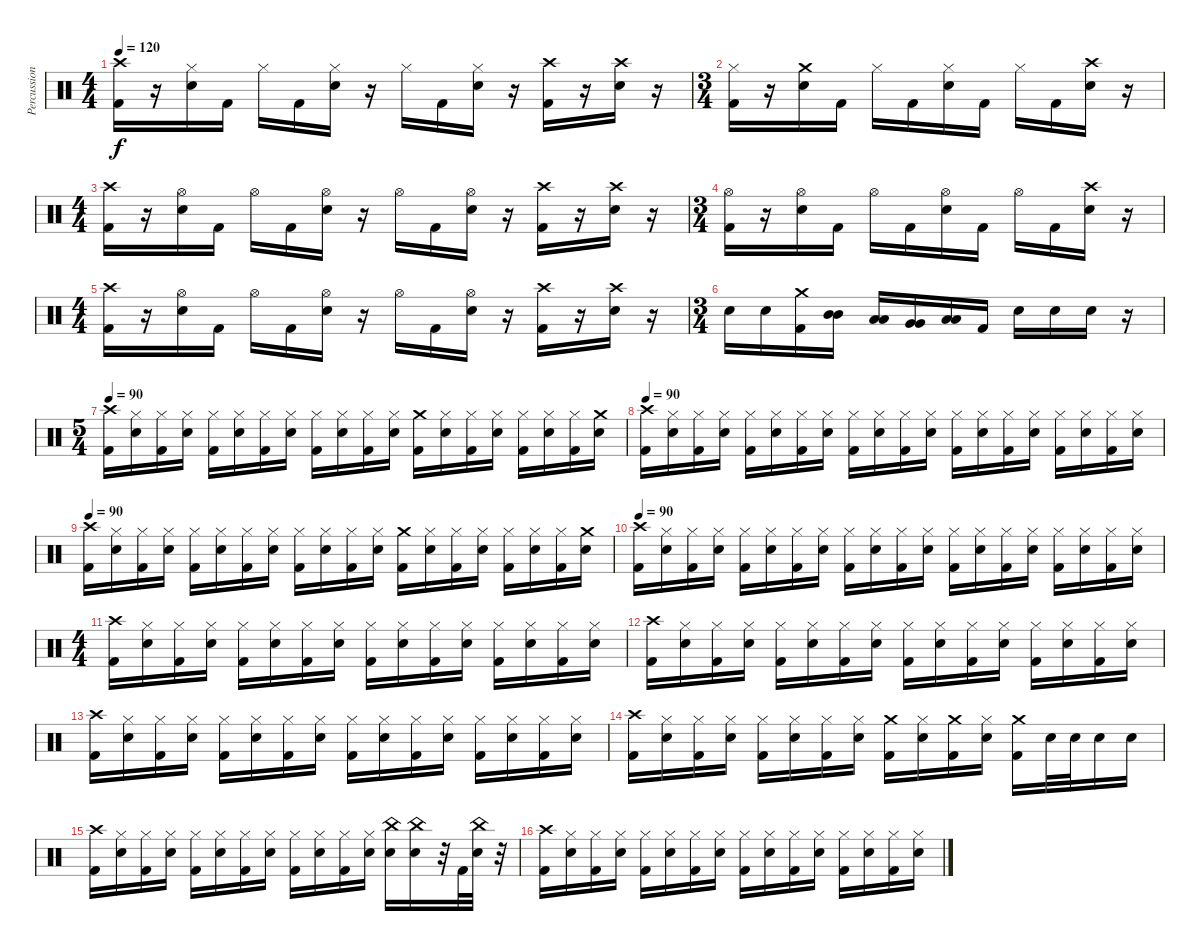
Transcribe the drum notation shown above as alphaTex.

\track ("Percussion" "Percussion") {instrument percussion}
\staff {score}
\articulation defaults
\ts (4 4)
\tempo 120
\clef neutral
\ks c
("Crash high (hit)" "Kick (hit) 2").16{dy f} r.16 ("Hi-Hat (closed)" "Snare (hit) 2").16 "Kick (hit) 2".16 "Hi-Hat (closed)".16 "Kick (hit) 2".16 ("Hi-Hat (closed)" "Snare (hit) 2").16 r.16 "Hi-Hat (closed)".16 "Kick (hit) 2".16 ("Hi-Hat (closed)" "Snare (hit) 2").16 r.16 ("Crash high (hit)" "Kick (hit) 2").16 r.16 ("Crash high (hit)" "Snare (hit) 2").16 r.16 |
\ts (3 4)
("Hi-Hat (closed)" "Kick (hit) 2").16 r.16 ("Crash medium (hit)" "Snare (hit) 2").16 "Kick (hit) 2".16 "Hi-Hat (closed)".16 "Kick (hit) 2".16 ("Hi-Hat (closed)" "Snare (hit) 2").16 "Kick (hit) 2".16 "Hi-Hat (closed)".16 "Kick (hit) 2".16 ("Crash high (hit)" "Snare (hit) 2").16 r.16 |
\ts (4 4)
("Crash high (hit)" "Kick (hit) 2").16 r.16 ("Hi-Hat (open)" "Snare (hit) 2").16 "Kick (hit) 2".16 "Hi-Hat (open)".16 "Kick (hit) 2".16 ("Hi-Hat (open)" "Snare (hit) 2").16 r.16 "Hi-Hat (open)".16 "Kick (hit) 2".16 ("Hi-Hat (open)" "Snare (hit) 2").16 r.16 ("Crash high (hit)" "Kick (hit) 2").16 r.16 ("Crash high (hit)" "Snare (hit) 2").16 r.16 |
\ts (3 4)
("Hi-Hat (open)" "Kick (hit) 2").16 r.16 ("Hi-Hat (open)" "Snare (hit) 2").16 "Kick (hit) 2".16 "Hi-Hat (open)".16 "Kick (hit) 2".16 ("Hi-Hat (open)" "Snare (hit) 2").16 "Kick (hit) 2".16 "Hi-Hat (open)".16 "Kick (hit) 2".16 ("Crash high (hit)" "Snare (hit) 2").16 r.16 |
\ts (4 4)
("Crash high (hit)" "Kick (hit) 2").16 r.16 ("Hi-Hat (open)" "Snare (hit) 2").16 "Kick (hit) 2".16 "Hi-Hat (open)".16 "Kick (hit) 2".16 ("Hi-Hat (open)" "Snare (hit) 2").16 r.16 "Hi-Hat (open)".16 "Kick (hit) 2".16 ("Hi-Hat (open)" "Snare (hit) 2").16 r.16 ("Crash high (hit)" "Kick (hit) 2").16 r.16 ("Crash high (hit)" "Snare (hit) 2").16 r.16 |
\ts (3 4)
"Snare (hit) 2".16 "Snare (hit) 2".16 ("Crash medium (hit)" "Kick (hit) 2").16 ("Mid Tom (hit)" "Mid Tom (hit)").16 ("Low Tom (hit)" "Low Tom (hit)").16 ("Very Low Tom (hit)" "Very Low Tom (hit)").16 ("Low Floor Tom (hit)" "Low Floor Tom (hit)").16 "Kick (hit) 2".16 "Snare (hit) 2".16 "Snare (hit) 2".16 "Snare (hit) 2".16 r.16 |
\ts (5 4)
\tempo 90
("Crash high (hit)" "Kick (hit) 2").16 ("Hi-Hat (closed)" "Snare (hit) 2").16 ("Hi-Hat (closed)" "Kick (hit) 2").16 ("Hi-Hat (closed)" "Snare (hit) 2").16 ("Hi-Hat (closed)" "Kick (hit) 2").16 ("Hi-Hat (closed)" "Snare (hit) 2").16 ("Hi-Hat (closed)" "Kick (hit) 2").16 ("Hi-Hat (closed)" "Snare (hit) 2").16 ("Hi-Hat (closed)" "Kick (hit) 2").16 ("Hi-Hat (closed)" "Snare (hit) 2").16 ("Hi-Hat (closed)" "Kick (hit) 2").16 ("Hi-Hat (closed)" "Snare (hit) 2").16 ("Crash medium (hit)" "Kick (hit) 2").16 ("Hi-Hat (closed)" "Snare (hit) 2").16 ("Hi-Hat (closed)" "Kick (hit) 2").16 ("Hi-Hat (closed)" "Snare (hit) 2").16 ("Hi-Hat (closed)" "Kick (hit) 2").16 ("Hi-Hat (closed)" "Snare (hit) 2").16 ("Hi-Hat (closed)" "Kick (hit) 2").16 ("Crash medium (hit)" "Snare (hit) 2").16 |
\tempo 90
("Crash high (hit)" "Kick (hit) 2").16 ("Hi-Hat (closed)" "Snare (hit) 2").16 ("Hi-Hat (closed)" "Kick (hit) 2").16 ("Hi-Hat (closed)" "Snare (hit) 2").16 ("Hi-Hat (closed)" "Kick (hit) 2").16 ("Hi-Hat (closed)" "Snare (hit) 2").16 ("Hi-Hat (closed)" "Kick (hit) 2").16 ("Hi-Hat (closed)" "Snare (hit) 2").16 ("Hi-Hat (closed)" "Kick (hit) 2").16 ("Hi-Hat (closed)" "Snare (hit) 2").16 ("Hi-Hat (closed)" "Kick (hit) 2").16 ("Hi-Hat (closed)" "Snare (hit) 2").16 ("Hi-Hat (closed)" "Kick (hit) 2").16 ("Hi-Hat (closed)" "Snare (hit) 2").16 ("Hi-Hat (closed)" "Kick (hit) 2").16 ("Hi-Hat (closed)" "Snare (hit) 2").16 ("Hi-Hat (closed)" "Kick (hit) 2").16 ("Hi-Hat (closed)" "Snare (hit) 2").16 ("Hi-Hat (closed)" "Kick (hit) 2").16 ("Hi-Hat (closed)" "Snare (hit) 2").16 |
\tempo 90
("Crash high (hit)" "Kick (hit) 2").16 ("Hi-Hat (closed)" "Snare (hit) 2").16 ("Hi-Hat (closed)" "Kick (hit) 2").16 ("Hi-Hat (closed)" "Snare (hit) 2").16 ("Hi-Hat (closed)" "Kick (hit) 2").16 ("Hi-Hat (closed)" "Snare (hit) 2").16 ("Hi-Hat (closed)" "Kick (hit) 2").16 ("Hi-Hat (closed)" "Snare (hit) 2").16 ("Hi-Hat (closed)" "Kick (hit) 2").16 ("Hi-Hat (closed)" "Snare (hit) 2").16 ("Hi-Hat (closed)" "Kick (hit) 2").16 ("Hi-Hat (closed)" "Snare (hit) 2").16 ("Crash medium (hit)" "Kick (hit) 2").16 ("Hi-Hat (closed)" "Snare (hit) 2").16 ("Hi-Hat (closed)" "Kick (hit) 2").16 ("Hi-Hat (closed)" "Snare (hit) 2").16 ("Hi-Hat (closed)" "Kick (hit) 2").16 ("Hi-Hat (closed)" "Snare (hit) 2").16 ("Hi-Hat (closed)" "Kick (hit) 2").16 ("Crash medium (hit)" "Snare (hit) 2").16 |
\tempo 90
("Crash high (hit)" "Kick (hit) 2").16 ("Hi-Hat (closed)" "Snare (hit) 2").16 ("Hi-Hat (closed)" "Kick (hit) 2").16 ("Hi-Hat (closed)" "Snare (hit) 2").16 ("Hi-Hat (closed)" "Kick (hit) 2").16 ("Hi-Hat (closed)" "Snare (hit) 2").16 ("Hi-Hat (closed)" "Kick (hit) 2").16 ("Hi-Hat (closed)" "Snare (hit) 2").16 ("Hi-Hat (closed)" "Kick (hit) 2").16 ("Hi-Hat (closed)" "Snare (hit) 2").16 ("Hi-Hat (closed)" "Kick (hit) 2").16 ("Hi-Hat (closed)" "Snare (hit) 2").16 ("Hi-Hat (closed)" "Kick (hit) 2").16 ("Hi-Hat (closed)" "Snare (hit) 2").16 ("Hi-Hat (closed)" "Kick (hit) 2").16 ("Hi-Hat (closed)" "Snare (hit) 2").16 ("Hi-Hat (closed)" "Kick (hit) 2").16 ("Hi-Hat (closed)" "Snare (hit) 2").16 ("Hi-Hat (closed)" "Kick (hit) 2").16 ("Hi-Hat (closed)" "Snare (hit) 2").16 |
\ts (4 4)
("Crash high (hit)" "Kick (hit) 2").16 ("Hi-Hat (closed)" "Snare (hit) 2").16 ("Hi-Hat (closed)" "Kick (hit) 2").16 ("Hi-Hat (closed)" "Snare (hit) 2").16 ("Hi-Hat (closed)" "Kick (hit) 2").16 ("Hi-Hat (closed)" "Snare (hit) 2").16 ("Hi-Hat (closed)" "Kick (hit) 2").16 ("Hi-Hat (closed)" "Snare (hit) 2").16 ("Hi-Hat (closed)" "Kick (hit) 2").16 ("Hi-Hat (closed)" "Snare (hit) 2").16 ("Hi-Hat (closed)" "Kick (hit) 2").16 ("Hi-Hat (closed)" "Snare (hit) 2").16 ("Hi-Hat (closed)" "Kick (hit) 2").16 ("Hi-Hat (closed)" "Snare (hit) 2").16 ("Hi-Hat (closed)" "Kick (hit) 2").16 ("Hi-Hat (closed)" "Snare (hit) 2").16 |
("Crash high (hit)" "Kick (hit) 2").16 ("Hi-Hat (closed)" "Snare (hit) 2").16 ("Hi-Hat (closed)" "Kick (hit) 2").16 ("Hi-Hat (closed)" "Snare (hit) 2").16 ("Hi-Hat (closed)" "Kick (hit) 2").16 ("Hi-Hat (closed)" "Snare (hit) 2").16 ("Hi-Hat (closed)" "Kick (hit) 2").16 ("Hi-Hat (closed)" "Snare (hit) 2").16 ("Hi-Hat (closed)" "Kick (hit) 2").16 ("Hi-Hat (closed)" "Snare (hit) 2").16 ("Hi-Hat (closed)" "Kick (hit) 2").16 ("Hi-Hat (closed)" "Snare (hit) 2").16 ("Hi-Hat (closed)" "Kick (hit) 2").16 ("Hi-Hat (closed)" "Snare (hit) 2").16 ("Hi-Hat (closed)" "Kick (hit) 2").16 ("Hi-Hat (closed)" "Snare (hit) 2").16 |
("Crash high (hit)" "Kick (hit) 2").16 ("Hi-Hat (closed)" "Snare (hit) 2").16 ("Hi-Hat (closed)" "Kick (hit) 2").16 ("Hi-Hat (closed)" "Snare (hit) 2").16 ("Hi-Hat (closed)" "Kick (hit) 2").16 ("Hi-Hat (closed)" "Snare (hit) 2").16 ("Hi-Hat (closed)" "Kick (hit) 2").16 ("Hi-Hat (closed)" "Snare (hit) 2").16 ("Hi-Hat (closed)" "Kick (hit) 2").16 ("Hi-Hat (closed)" "Snare (hit) 2").16 ("Hi-Hat (closed)" "Kick (hit) 2").16 ("Hi-Hat (closed)" "Snare (hit) 2").16 ("Hi-Hat (closed)" "Kick (hit) 2").16 ("Hi-Hat (closed)" "Snare (hit) 2").16 ("Hi-Hat (closed)" "Kick (hit) 2").16 ("Hi-Hat (closed)" "Snare (hit) 2").16 |
("Crash high (hit)" "Kick (hit) 2").16 ("Hi-Hat (closed)" "Snare (hit) 2").16 ("Hi-Hat (closed)" "Kick (hit) 2").16 ("Hi-Hat (closed)" "Snare (hit) 2").16 ("Hi-Hat (closed)" "Kick (hit) 2").16 ("Hi-Hat (closed)" "Snare (hit) 2").16 ("Hi-Hat (closed)" "Kick (hit) 2").16 ("Hi-Hat (closed)" "Snare (hit) 2").16 ("Crash medium (hit)" "Kick (hit) 2").16 ("Hi-Hat (closed)" "Snare (hit) 2").16 ("Crash medium (hit)" "Kick (hit) 2").16 ("Hi-Hat (closed)" "Snare (hit) 2").16 ("Crash medium (hit)" "Kick (hit) 2").16 "Snare (hit) 2".32 "Snare (hit) 2".32 "Snare (hit) 2".16 "Snare (hit) 2".16 |
("Crash high (hit)" "Kick (hit) 2").16 ("Hi-Hat (closed)" "Snare (hit) 2").16 ("Hi-Hat (closed)" "Kick (hit) 2").16 ("Hi-Hat (closed)" "Snare (hit) 2").16 ("Hi-Hat (closed)" "Kick (hit) 2").16 ("Hi-Hat (closed)" "Snare (hit) 2").16 ("Hi-Hat (closed)" "Kick (hit) 2").16 ("Hi-Hat (closed)" "Snare (hit) 2").16 ("Hi-Hat (closed)" "Kick (hit) 2").16 ("Hi-Hat (closed)" "Snare (hit) 2").16 ("Hi-Hat (closed)" "Kick (hit) 2").16 ("Hi-Hat (closed)" "Snare (hit) 2").16 ("China (hit)" "Snare (hit) 2").16 ("China (hit)" "Snare (hit) 2").16 r.32 "Kick (hit) 2".32 ("China (hit)" "Snare (hit) 2").32 r.32 |
("Crash high (hit)" "Kick (hit) 2").16 ("Hi-Hat (closed)" "Snare (hit) 2").16 ("Hi-Hat (closed)" "Kick (hit) 2").16 ("Hi-Hat (closed)" "Snare (hit) 2").16 ("Hi-Hat (closed)" "Kick (hit) 2").16 ("Hi-Hat (closed)" "Snare (hit) 2").16 ("Hi-Hat (closed)" "Kick (hit) 2").16 ("Hi-Hat (closed)" "Snare (hit) 2").16 ("Hi-Hat (closed)" "Kick (hit) 2").16 ("Hi-Hat (closed)" "Snare (hit) 2").16 ("Hi-Hat (closed)" "Kick (hit) 2").16 ("Hi-Hat (closed)" "Snare (hit) 2").16 ("Hi-Hat (closed)" "Kick (hit) 2").16 ("Hi-Hat (closed)" "Snare (hit) 2").16 ("Hi-Hat (closed)" "Kick (hit) 2").16 ("Hi-Hat (closed)" "Snare (hit) 2").16
